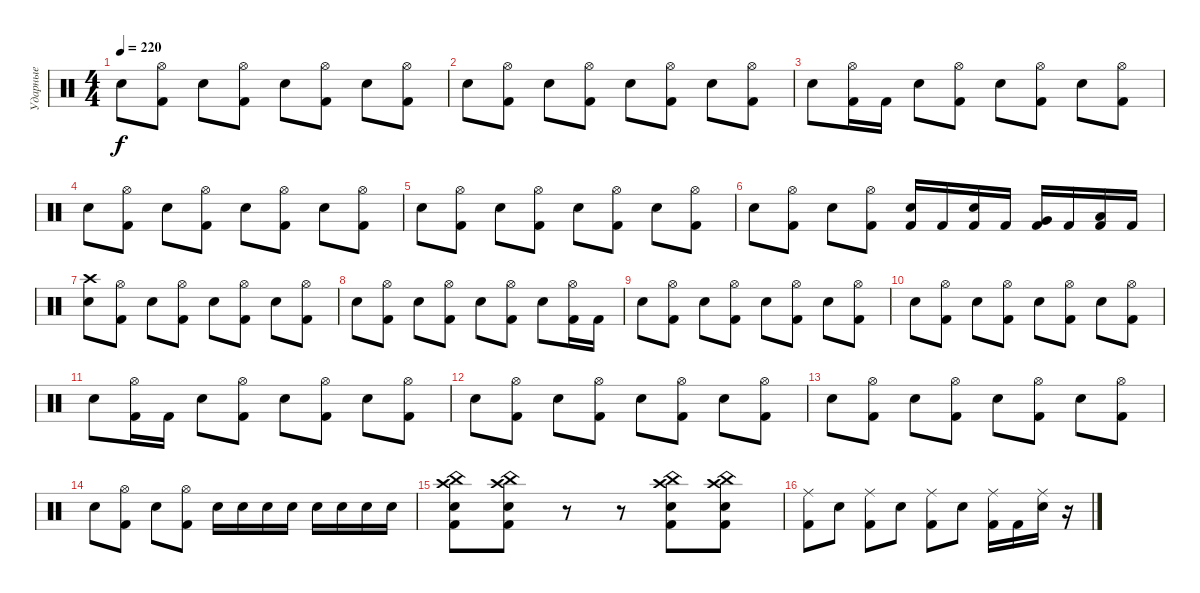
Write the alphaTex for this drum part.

\track ("Ударные" "Ударные") {instrument percussion}
\staff {score}
\articulation defaults
\ts (4 4)
\tempo 220
\clef neutral
\ks c "Electric Snare (hit)".8{dy f}
("Kick (hit) 2" "Hi-Hat (open)").8 "Electric Snare (hit)".8 ("Kick (hit) 2" "Hi-Hat (open)").8 "Electric Snare (hit)".8 ("Kick (hit) 2" "Hi-Hat (open)").8 "Electric Snare (hit)".8 ("Kick (hit) 2" "Hi-Hat (open)").8 |
"Electric Snare (hit)".8 ("Kick (hit) 2" "Hi-Hat (open)").8 "Electric Snare (hit)".8 ("Kick (hit) 2" "Hi-Hat (open)").8 "Electric Snare (hit)".8 ("Kick (hit) 2" "Hi-Hat (open)").8 "Electric Snare (hit)".8 ("Kick (hit) 2" "Hi-Hat (open)").8 |
"Electric Snare (hit)".8 ("Kick (hit) 2" "Hi-Hat (open)").16 "Kick (hit) 2".16 "Electric Snare (hit)".8 ("Kick (hit) 2" "Hi-Hat (open)").8 "Electric Snare (hit)".8 ("Kick (hit) 2" "Hi-Hat (open)").8 "Electric Snare (hit)".8 ("Kick (hit) 2" "Hi-Hat (open)").8 |
"Electric Snare (hit)".8 ("Kick (hit) 2" "Hi-Hat (open)").8 "Electric Snare (hit)".8 ("Kick (hit) 2" "Hi-Hat (open)").8 "Electric Snare (hit)".8 ("Kick (hit) 2" "Hi-Hat (open)").8 "Electric Snare (hit)".8 ("Kick (hit) 2" "Hi-Hat (open)").8 |
"Electric Snare (hit)".8 ("Kick (hit) 2" "Hi-Hat (open)").8 "Electric Snare (hit)".8 ("Kick (hit) 2" "Hi-Hat (open)").8 "Electric Snare (hit)".8 ("Kick (hit) 2" "Hi-Hat (open)").8 "Electric Snare (hit)".8 ("Kick (hit) 2" "Hi-Hat (open)").8 |
"Electric Snare (hit)".8 ("Kick (hit) 2" "Hi-Hat (open)").8 "Electric Snare (hit)".8 ("Kick (hit) 2" "Hi-Hat (open)").8 ("Kick (hit) 2" "Electric Snare (hit)").16 "Kick (hit) 2".16 ("Kick (hit) 2" "Snare (hit) 2").16 "Kick (hit) 2".16 ("Kick (hit) 2" "Very Low Tom (hit)").16 "Kick (hit) 2".16 ("Kick (hit) 2" "Low Floor Tom (hit)").16 "Kick (hit) 2".16 |
("Electric Snare (hit)" "Crash high (hit)").8 ("Kick (hit) 2" "Hi-Hat (open)").8 "Electric Snare (hit)".8 ("Kick (hit) 2" "Hi-Hat (open)").8 "Electric Snare (hit)".8 ("Kick (hit) 2" "Hi-Hat (open)").8 "Electric Snare (hit)".8 ("Kick (hit) 2" "Hi-Hat (open)").8 |
"Electric Snare (hit)".8 ("Kick (hit) 2" "Hi-Hat (open)").8 "Electric Snare (hit)".8 ("Kick (hit) 2" "Hi-Hat (open)").8 "Electric Snare (hit)".8 ("Kick (hit) 2" "Hi-Hat (open)").8 "Electric Snare (hit)".8 ("Kick (hit) 2" "Hi-Hat (open)").16 "Kick (hit) 2".16 |
"Electric Snare (hit)".8 ("Kick (hit) 2" "Hi-Hat (open)").8 "Electric Snare (hit)".8 ("Kick (hit) 2" "Hi-Hat (open)").8 "Electric Snare (hit)".8 ("Kick (hit) 2" "Hi-Hat (open)").8 "Electric Snare (hit)".8 ("Kick (hit) 2" "Hi-Hat (open)").8 |
"Electric Snare (hit)".8 ("Kick (hit) 2" "Hi-Hat (open)").8 "Electric Snare (hit)".8 ("Kick (hit) 2" "Hi-Hat (open)").8 "Electric Snare (hit)".8 ("Kick (hit) 2" "Hi-Hat (open)").8 "Electric Snare (hit)".8 ("Kick (hit) 2" "Hi-Hat (open)").8 |
"Electric Snare (hit)".8 ("Kick (hit) 2" "Hi-Hat (open)").16 "Kick (hit) 2".16 "Electric Snare (hit)".8 ("Kick (hit) 2" "Hi-Hat (open)").8 "Electric Snare (hit)".8 ("Kick (hit) 2" "Hi-Hat (open)").8 "Electric Snare (hit)".8 ("Kick (hit) 2" "Hi-Hat (open)").8 |
"Electric Snare (hit)".8 ("Kick (hit) 2" "Hi-Hat (open)").8 "Electric Snare (hit)".8 ("Kick (hit) 2" "Hi-Hat (open)").8 "Electric Snare (hit)".8 ("Kick (hit) 2" "Hi-Hat (open)").8 "Electric Snare (hit)".8 ("Kick (hit) 2" "Hi-Hat (open)").8 |
"Electric Snare (hit)".8 ("Kick (hit) 2" "Hi-Hat (open)").8 "Electric Snare (hit)".8 ("Kick (hit) 2" "Hi-Hat (open)").8 "Electric Snare (hit)".8 ("Kick (hit) 2" "Hi-Hat (open)").8 "Electric Snare (hit)".8 ("Kick (hit) 2" "Hi-Hat (open)").8 |
"Electric Snare (hit)".8 ("Kick (hit) 2" "Hi-Hat (open)").8 "Electric Snare (hit)".8 ("Kick (hit) 2" "Hi-Hat (open)").8 "Electric Snare (hit)".16 "Electric Snare (hit)".16 "Electric Snare (hit)".16 "Electric Snare (hit)".16 "Electric Snare (hit)".16 "Electric Snare (hit)".16 "Electric Snare (hit)".16 "Electric Snare (hit)".16 |
("Kick (hit) 2" "Electric Snare (hit)" "Crash high (hit)" "China (hit)").8 ("China (hit)" "Crash high (hit)" "Kick (hit) 2" "Electric Snare (hit)").8 r.8 r.8 ("Kick (hit) 2" "Electric Snare (hit)" "Crash high (hit)" "China (hit)").8 ("China (hit)" "Crash high (hit)" "Kick (hit) 2" "Electric Snare (hit)").8 |
("Ride (middle)" "Kick (hit) 2").8 "Electric Snare (hit)".8 ("Kick (hit) 2" "Ride (middle)").8 "Electric Snare (hit)".8 ("Ride (middle)" "Kick (hit) 2").8 "Electric Snare (hit)".8 ("Ride (middle)" "Kick (hit) 2").16 "Kick (hit) 2".16 ("Ride (middle)" "Electric Snare (hit)").16 r.16
